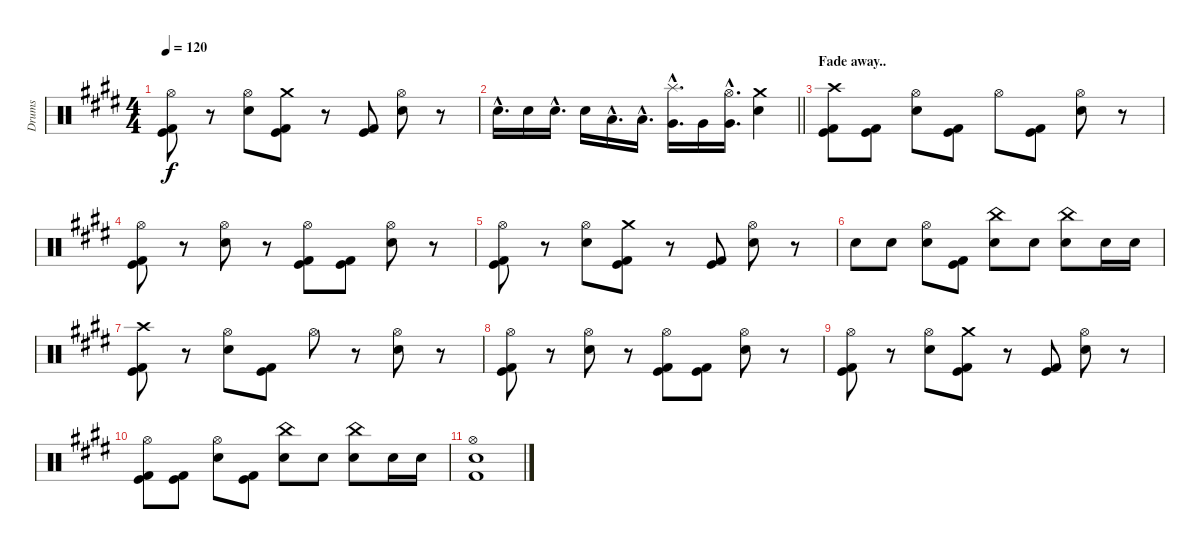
\track ("Drums" "Drums") {instrument percussion}
\staff {score}
\articulation defaults
\ts (4 4)
\tempo 120
\clef neutral
\ks e
("Hi-Hat (open)" "Kick (hit)" "Kick (hit) 2").8{dy f} r.8 ("Hi-Hat (open)" "Electric Snare (hit)").8 ("Crash medium (hit)" "Kick (hit)" "Kick (hit) 2").8 r.8 ("Kick (hit) 2" "Kick (hit)").8 ("Hi-Hat (open)" "Electric Snare (hit)").8 r.8 |
\barLineRight lightlight "Electric Snare (hit)"{hac}.16{d} "Electric Snare (hit)".16 "Electric Snare (hit)"{hac}.16{d} "Electric Snare (hit)".16 "Low Tom (hit)"{hac}.16{d} "Low Tom (hit)"{hac}.16{d}
("Splash (hit)"{hac} "Very Low Tom (hit)"{hac}).16{d} "Very Low Tom (hit)".16 ("Hi-Hat (open)"{hac} "Very Low Tom (hit)"{hac}).16{d} ("Crash medium (hit)" "Electric Snare (hit)").4 |
\section ("" "Fade away..")
("Crash high (hit)" "Kick (hit)" "Kick (hit) 2").8{volume 11} ("Kick (hit) 2" "Kick (hit)").8 ("Hi-Hat (open)" "Electric Snare (hit)").8 ("Kick (hit)" "Kick (hit) 2").8 "Hi-Hat (open)".8 ("Kick (hit) 2" "Kick (hit)").8 ("Hi-Hat (open)" "Electric Snare (hit)").8 r.8 |
("Hi-Hat (open)" "Kick (hit)" "Kick (hit) 2").8{volume 10} r.8 ("Hi-Hat (open)" "Electric Snare (hit)").8 r.8 ("Hi-Hat (open)" "Kick (hit)" "Kick (hit) 2").8 ("Kick (hit)" "Kick (hit) 2").8 ("Hi-Hat (open)" "Electric Snare (hit)").8 r.8 |
("Hi-Hat (open)" "Kick (hit)" "Kick (hit) 2").8{volume 9} r.8 ("Hi-Hat (open)" "Electric Snare (hit)").8 ("Crash medium (hit)" "Kick (hit)" "Kick (hit) 2").8 r.8 ("Kick (hit) 2" "Kick (hit)").8 ("Hi-Hat (open)" "Electric Snare (hit)").8 r.8 |
"Electric Snare (hit)".8{volume 8} "Electric Snare (hit)".8 ("Hi-Hat (open)" "Electric Snare (hit)").8 ("Kick (hit)" "Kick (hit) 2").8 ("China (hit)" "Electric Snare (hit)").8 "Electric Snare (hit)".8 ("China (hit)" "Electric Snare (hit)").8 "Electric Snare (hit)".16 "Electric Snare (hit)".16 |
("Crash high (hit)" "Kick (hit)" "Kick (hit) 2").8{volume 7} r.8 ("Hi-Hat (open)" "Electric Snare (hit)").8 ("Kick (hit)" "Kick (hit) 2").8 "Hi-Hat (open)".8 r.8 ("Hi-Hat (open)" "Electric Snare (hit)").8 r.8 |
("Hi-Hat (open)" "Kick (hit)" "Kick (hit) 2").8{volume 5} r.8 ("Hi-Hat (open)" "Electric Snare (hit)").8 r.8 ("Hi-Hat (open)" "Kick (hit)" "Kick (hit) 2").8 ("Kick (hit)" "Kick (hit) 2").8 ("Hi-Hat (open)" "Electric Snare (hit)").8 r.8 |
("Hi-Hat (open)" "Kick (hit)" "Kick (hit) 2").8{volume 3} r.8 ("Hi-Hat (open)" "Electric Snare (hit)").8 ("Crash medium (hit)" "Kick (hit)" "Kick (hit) 2").8 r.8 ("Kick (hit) 2" "Kick (hit)").8 ("Hi-Hat (open)" "Electric Snare (hit)").8 r.8 |
("Hi-Hat (open)" "Kick (hit)" "Kick (hit) 2").8{volume 2} ("Kick (hit) 2" "Kick (hit)").8 ("Hi-Hat (open)" "Electric Snare (hit)").8 ("Kick (hit)" "Kick (hit) 2").8 ("China (hit)" "Electric Snare (hit)").8 "Electric Snare (hit)".8 ("China (hit)" "Electric Snare (hit)").8 "Electric Snare (hit)".16 "Electric Snare (hit)".16 |
("Hi-Hat (open)" "Electric Snare (hit)" "Kick (hit) 2").1
